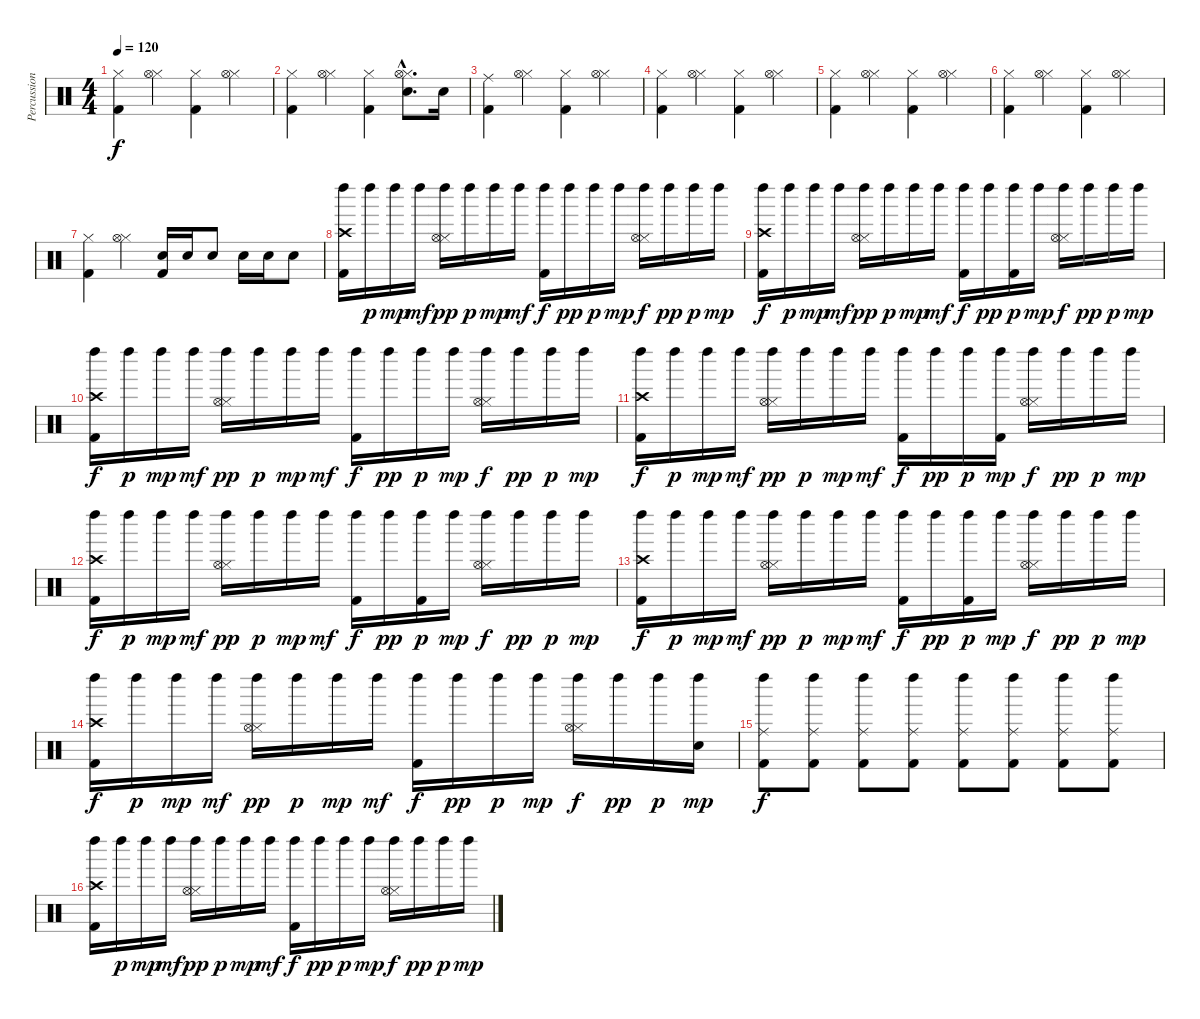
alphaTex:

\track ("Percussion" "Percussion") {instrument percussion}
\staff {score}
\articulation defaults
\ts (4 4)
\tempo 120
\clef neutral
\ks c
("Kick (hit) 2" "Hi-Hat (closed)").4{dy f} ("Hi-Hat (closed)" "Hi-Hat (open)").4 ("Kick (hit) 2" "Hi-Hat (closed)").4 ("Hi-Hat (closed)" "Hi-Hat (open)").4 |
("Kick (hit) 2" "Hi-Hat (closed)").4 ("Hi-Hat (closed)" "Hi-Hat (open)").4 ("Kick (hit) 2" "Hi-Hat (closed)").4 ("Snare (hit) 2"{hac} "Hi-Hat (closed)"{hac} "Hi-Hat (open)"{hac}).8{d} "Snare (hit) 2".16 |
("Kick (hit) 2" "Ride (middle)").4 ("Hi-Hat (closed)" "Hi-Hat (open)").4 ("Kick (hit) 2" "Hi-Hat (closed)").4 ("Hi-Hat (closed)" "Hi-Hat (open)").4 |
("Kick (hit) 2" "Hi-Hat (closed)").4 ("Hi-Hat (closed)" "Hi-Hat (open)").4 ("Kick (hit) 2" "Hi-Hat (closed)").4 ("Hi-Hat (closed)" "Hi-Hat (open)").4 |
("Kick (hit) 2" "Hi-Hat (closed)").4 ("Hi-Hat (closed)" "Hi-Hat (open)").4 ("Kick (hit) 2" "Hi-Hat (closed)").4 ("Hi-Hat (closed)" "Hi-Hat (open)").4 |
("Kick (hit) 2" "Hi-Hat (closed)").4 ("Hi-Hat (closed)" "Hi-Hat (open)").4 ("Kick (hit) 2" "Hi-Hat (closed)").4 ("Hi-Hat (closed)" "Hi-Hat (open)").4 |
("Kick (hit) 2" "Hi-Hat (closed)").4 ("Hi-Hat (closed)" "Hi-Hat (open)").4 ("Kick (hit) 2" "Snare (hit) 2").16 "Snare (hit) 2".16 "Snare (hit) 2".8 "Snare (hit) 2".16 "Snare (hit) 2".16 "Snare (hit) 2".8 |
("Kick (hit) 2" "Crash high (hit)" "Left Maraca (hit)").16 "Left Maraca (hit)".16{dy p} "Left Maraca (hit)".16{dy mp} "Left Maraca (hit)".16{dy mf} ("Hi-Hat (closed)" "Hi-Hat (open)" "Left Maraca (hit)").16{dy pp} "Left Maraca (hit)".16{dy p} "Left Maraca (hit)".16{dy mp} "Left Maraca (hit)".16{dy mf} ("Kick (hit) 2" "Left Maraca (hit)").16{dy f} "Left Maraca (hit)".16{dy pp} "Left Maraca (hit)".16{dy p} "Left Maraca (hit)".16{dy mp} ("Hi-Hat (closed)" "Hi-Hat (open)" "Left Maraca (hit)").16{dy f} "Left Maraca (hit)".16{dy pp} "Left Maraca (hit)".16{dy p} "Left Maraca (hit)".16{dy mp} |
("Kick (hit) 2" "Crash high (hit)" "Left Maraca (hit)").16{dy f} "Left Maraca (hit)".16{dy p} "Left Maraca (hit)".16{dy mp} "Left Maraca (hit)".16{dy mf} ("Hi-Hat (closed)" "Hi-Hat (open)" "Left Maraca (hit)").16{dy pp} "Left Maraca (hit)".16{dy p} "Left Maraca (hit)".16{dy mp} "Left Maraca (hit)".16{dy mf} ("Kick (hit) 2" "Left Maraca (hit)").16{dy f} "Left Maraca (hit)".16{dy pp} ("Kick (hit) 2" "Left Maraca (hit)").16{dy p} "Left Maraca (hit)".16{dy mp} ("Hi-Hat (closed)" "Hi-Hat (open)" "Left Maraca (hit)").16{dy f} "Left Maraca (hit)".16{dy pp} "Left Maraca (hit)".16{dy p} "Left Maraca (hit)".16{dy mp} |
("Kick (hit) 2" "Crash high (hit)" "Left Maraca (hit)").16{dy f} "Left Maraca (hit)".16{dy p} "Left Maraca (hit)".16{dy mp} "Left Maraca (hit)".16{dy mf} ("Hi-Hat (closed)" "Hi-Hat (open)" "Left Maraca (hit)").16{dy pp} "Left Maraca (hit)".16{dy p} "Left Maraca (hit)".16{dy mp} "Left Maraca (hit)".16{dy mf} ("Kick (hit) 2" "Left Maraca (hit)").16{dy f} "Left Maraca (hit)".16{dy pp} "Left Maraca (hit)".16{dy p} "Left Maraca (hit)".16{dy mp} ("Hi-Hat (closed)" "Hi-Hat (open)" "Left Maraca (hit)").16{dy f} "Left Maraca (hit)".16{dy pp} "Left Maraca (hit)".16{dy p} "Left Maraca (hit)".16{dy mp} |
("Kick (hit) 2" "Crash high (hit)" "Left Maraca (hit)").16{dy f} "Left Maraca (hit)".16{dy p} "Left Maraca (hit)".16{dy mp} "Left Maraca (hit)".16{dy mf} ("Hi-Hat (closed)" "Hi-Hat (open)" "Left Maraca (hit)").16{dy pp} "Left Maraca (hit)".16{dy p} "Left Maraca (hit)".16{dy mp} "Left Maraca (hit)".16{dy mf} ("Kick (hit) 2" "Left Maraca (hit)").16{dy f} "Left Maraca (hit)".16{dy pp} "Left Maraca (hit)".16{dy p} ("Kick (hit) 2" "Left Maraca (hit)").16{dy mp} ("Hi-Hat (closed)" "Hi-Hat (open)" "Left Maraca (hit)").16{dy f} "Left Maraca (hit)".16{dy pp} "Left Maraca (hit)".16{dy p} "Left Maraca (hit)".16{dy mp} |
("Kick (hit) 2" "Crash high (hit)" "Left Maraca (hit)").16{dy f} "Left Maraca (hit)".16{dy p} "Left Maraca (hit)".16{dy mp} "Left Maraca (hit)".16{dy mf} ("Hi-Hat (closed)" "Hi-Hat (open)" "Left Maraca (hit)").16{dy pp} "Left Maraca (hit)".16{dy p} "Left Maraca (hit)".16{dy mp} "Left Maraca (hit)".16{dy mf} ("Kick (hit) 2" "Left Maraca (hit)").16{dy f} "Left Maraca (hit)".16{dy pp} ("Kick (hit) 2" "Left Maraca (hit)").16{dy p} "Left Maraca (hit)".16{dy mp} ("Hi-Hat (closed)" "Hi-Hat (open)" "Left Maraca (hit)").16{dy f} "Left Maraca (hit)".16{dy pp} "Left Maraca (hit)".16{dy p} "Left Maraca (hit)".16{dy mp} |
("Kick (hit) 2" "Crash high (hit)" "Left Maraca (hit)").16{dy f} "Left Maraca (hit)".16{dy p} "Left Maraca (hit)".16{dy mp} "Left Maraca (hit)".16{dy mf} ("Hi-Hat (closed)" "Hi-Hat (open)" "Left Maraca (hit)").16{dy pp} "Left Maraca (hit)".16{dy p} "Left Maraca (hit)".16{dy mp} "Left Maraca (hit)".16{dy mf} ("Kick (hit) 2" "Left Maraca (hit)").16{dy f} "Left Maraca (hit)".16{dy pp} ("Kick (hit) 2" "Left Maraca (hit)").16{dy p} "Left Maraca (hit)".16{dy mp} ("Hi-Hat (closed)" "Hi-Hat (open)" "Left Maraca (hit)").16{dy f} "Left Maraca (hit)".16{dy pp} "Left Maraca (hit)".16{dy p} "Left Maraca (hit)".16{dy mp} |
("Kick (hit) 2" "Crash high (hit)" "Left Maraca (hit)").16{dy f} "Left Maraca (hit)".16{dy p} "Left Maraca (hit)".16{dy mp} "Left Maraca (hit)".16{dy mf} ("Hi-Hat (closed)" "Hi-Hat (open)" "Left Maraca (hit)").16{dy pp} "Left Maraca (hit)".16{dy p} "Left Maraca (hit)".16{dy mp} "Left Maraca (hit)".16{dy mf} ("Kick (hit) 2" "Left Maraca (hit)").16{dy f} "Left Maraca (hit)".16{dy pp} "Left Maraca (hit)".16{dy p} "Left Maraca (hit)".16{dy mp} ("Hi-Hat (closed)" "Hi-Hat (open)" "Left Maraca (hit)").16{dy f} "Left Maraca (hit)".16{dy pp} "Left Maraca (hit)".16{dy p} ("Snare (hit) 2" "Left Maraca (hit)").16{dy mp} |
("Kick (hit) 2" "Ride (middle)" "Left Maraca (hit)").8{dy f} ("Kick (hit) 2" "Ride (middle)" "Left Maraca (hit)").8 ("Kick (hit) 2" "Ride (middle)" "Left Maraca (hit)").8 ("Kick (hit) 2" "Ride (middle)" "Left Maraca (hit)").8 ("Kick (hit) 2" "Ride (middle)" "Left Maraca (hit)").8 ("Kick (hit) 2" "Ride (middle)" "Left Maraca (hit)").8 ("Kick (hit) 2" "Ride (middle)" "Left Maraca (hit)").8 ("Kick (hit) 2" "Ride (middle)" "Left Maraca (hit)").8 |
("Kick (hit) 2" "Crash high (hit)" "Left Maraca (hit)").16 "Left Maraca (hit)".16{dy p} "Left Maraca (hit)".16{dy mp} "Left Maraca (hit)".16{dy mf} ("Hi-Hat (closed)" "Hi-Hat (open)" "Left Maraca (hit)").16{dy pp} "Left Maraca (hit)".16{dy p} "Left Maraca (hit)".16{dy mp} "Left Maraca (hit)".16{dy mf} ("Kick (hit) 2" "Left Maraca (hit)").16{dy f} "Left Maraca (hit)".16{dy pp} "Left Maraca (hit)".16{dy p} "Left Maraca (hit)".16{dy mp} ("Hi-Hat (closed)" "Hi-Hat (open)" "Left Maraca (hit)").16{dy f} "Left Maraca (hit)".16{dy pp} "Left Maraca (hit)".16{dy p} "Left Maraca (hit)".16{dy mp}
